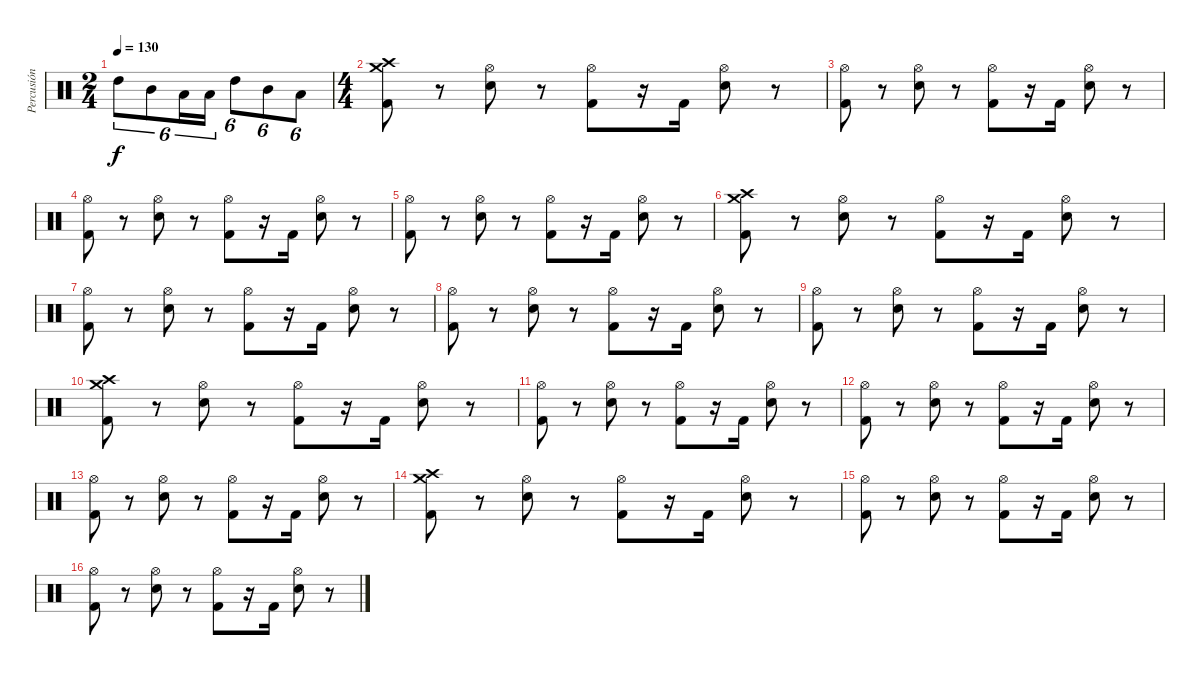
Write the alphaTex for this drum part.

\track ("Percusión" "Percusión") {instrument percussion}
\staff {score}
\articulation defaults
\ts (2 4)
\tempo 130
\clef neutral
\ks c "High Tom (hit)".8{tu (6 4) dy f} "Mid Tom (hit)".8{tu (6 4)} "Low Tom (hit)".16{tu (6 4)} "Low Tom (hit)".16{tu (6 4)} "High Tom (hit)".8{tu (6 4)} "Mid Tom (hit)".8{tu (6 4)} "Low Tom (hit)".8{tu (6 4)}
|
\ts (4 4)
("Crash high (hit)" "Crash medium (hit)" "Kick (hit) 2").8 r.8 ("Hi-Hat (open)" "Electric Snare (hit)").8 r.8 ("Hi-Hat (open)" "Kick (hit) 2").8 r.16 "Kick (hit) 2".16 ("Hi-Hat (open)" "Electric Snare (hit)").8 r.8 |
("Hi-Hat (open)" "Kick (hit) 2").8 r.8 ("Hi-Hat (open)" "Electric Snare (hit)").8 r.8 ("Hi-Hat (open)" "Kick (hit) 2").8 r.16 "Kick (hit) 2".16 ("Hi-Hat (open)" "Electric Snare (hit)").8 r.8 |
("Hi-Hat (open)" "Kick (hit) 2").8 r.8 ("Hi-Hat (open)" "Electric Snare (hit)").8 r.8 ("Hi-Hat (open)" "Kick (hit) 2").8 r.16 "Kick (hit) 2".16 ("Hi-Hat (open)" "Electric Snare (hit)").8 r.8 |
("Hi-Hat (open)" "Kick (hit) 2").8 r.8 ("Hi-Hat (open)" "Electric Snare (hit)").8 r.8 ("Hi-Hat (open)" "Kick (hit) 2").8 r.16 "Kick (hit) 2".16 ("Hi-Hat (open)" "Electric Snare (hit)").8 r.8 |
("Crash high (hit)" "Crash medium (hit)" "Kick (hit) 2").8 r.8 ("Hi-Hat (open)" "Electric Snare (hit)").8 r.8 ("Hi-Hat (open)" "Kick (hit) 2").8 r.16 "Kick (hit) 2".16 ("Hi-Hat (open)" "Electric Snare (hit)").8 r.8 |
("Hi-Hat (open)" "Kick (hit) 2").8 r.8 ("Hi-Hat (open)" "Electric Snare (hit)").8 r.8 ("Hi-Hat (open)" "Kick (hit) 2").8 r.16 "Kick (hit) 2".16 ("Hi-Hat (open)" "Electric Snare (hit)").8 r.8 |
("Hi-Hat (open)" "Kick (hit) 2").8 r.8 ("Hi-Hat (open)" "Electric Snare (hit)").8 r.8 ("Hi-Hat (open)" "Kick (hit) 2").8 r.16 "Kick (hit) 2".16 ("Hi-Hat (open)" "Electric Snare (hit)").8 r.8 |
("Hi-Hat (open)" "Kick (hit) 2").8 r.8 ("Hi-Hat (open)" "Electric Snare (hit)").8 r.8 ("Hi-Hat (open)" "Kick (hit) 2").8 r.16 "Kick (hit) 2".16 ("Hi-Hat (open)" "Electric Snare (hit)").8 r.8 |
("Crash high (hit)" "Crash medium (hit)" "Kick (hit) 2").8 r.8 ("Hi-Hat (open)" "Electric Snare (hit)").8 r.8 ("Hi-Hat (open)" "Kick (hit) 2").8 r.16 "Kick (hit) 2".16 ("Hi-Hat (open)" "Electric Snare (hit)").8 r.8 |
("Hi-Hat (open)" "Kick (hit) 2").8 r.8 ("Hi-Hat (open)" "Electric Snare (hit)").8 r.8 ("Hi-Hat (open)" "Kick (hit) 2").8 r.16 "Kick (hit) 2".16 ("Hi-Hat (open)" "Electric Snare (hit)").8 r.8 |
("Hi-Hat (open)" "Kick (hit) 2").8 r.8 ("Hi-Hat (open)" "Electric Snare (hit)").8 r.8 ("Hi-Hat (open)" "Kick (hit) 2").8 r.16 "Kick (hit) 2".16 ("Hi-Hat (open)" "Electric Snare (hit)").8 r.8 |
("Hi-Hat (open)" "Kick (hit) 2").8 r.8 ("Hi-Hat (open)" "Electric Snare (hit)").8 r.8 ("Hi-Hat (open)" "Kick (hit) 2").8 r.16 "Kick (hit) 2".16 ("Hi-Hat (open)" "Electric Snare (hit)").8 r.8 |
("Crash high (hit)" "Crash medium (hit)" "Kick (hit) 2").8 r.8 ("Hi-Hat (open)" "Electric Snare (hit)").8 r.8 ("Hi-Hat (open)" "Kick (hit) 2").8 r.16 "Kick (hit) 2".16 ("Hi-Hat (open)" "Electric Snare (hit)").8 r.8 |
("Hi-Hat (open)" "Kick (hit) 2").8 r.8 ("Hi-Hat (open)" "Electric Snare (hit)").8 r.8 ("Hi-Hat (open)" "Kick (hit) 2").8 r.16 "Kick (hit) 2".16 ("Hi-Hat (open)" "Electric Snare (hit)").8 r.8 |
("Hi-Hat (open)" "Kick (hit) 2").8 r.8 ("Hi-Hat (open)" "Electric Snare (hit)").8 r.8 ("Hi-Hat (open)" "Kick (hit) 2").8 r.16 "Kick (hit) 2".16 ("Hi-Hat (open)" "Electric Snare (hit)").8 r.8
